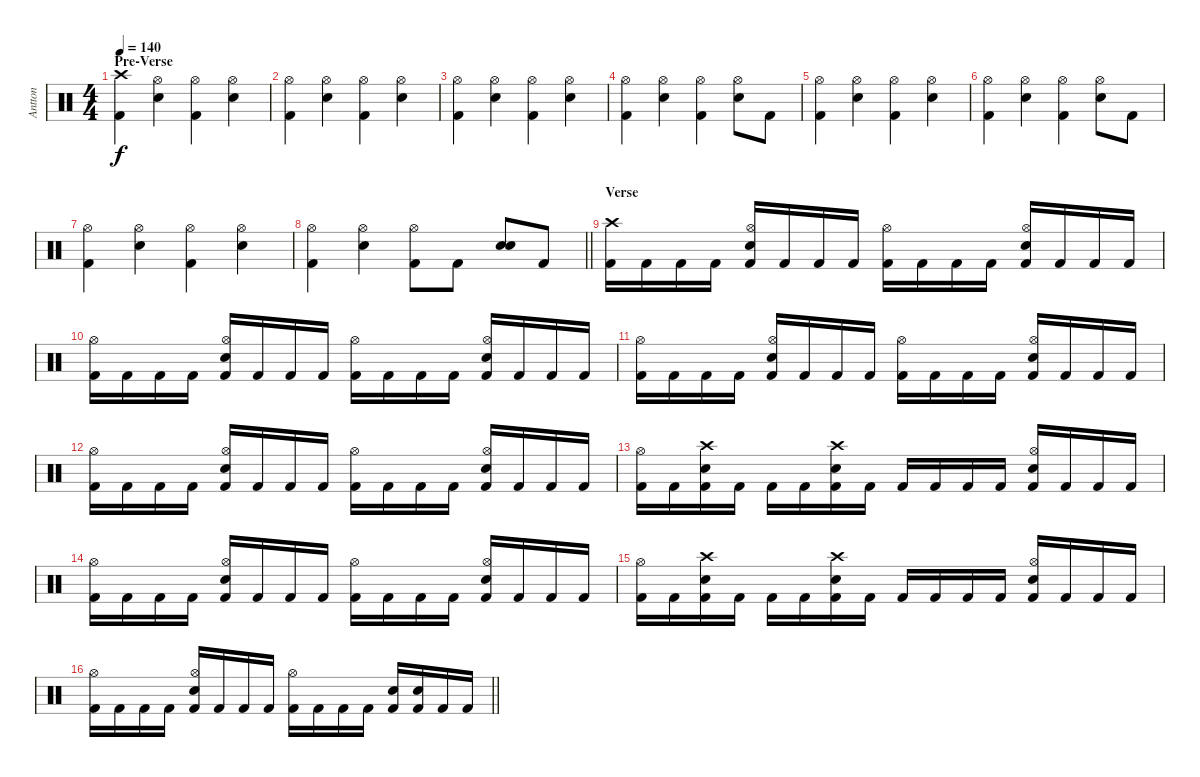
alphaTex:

\track ("Antton" "Antton") {instrument percussion}
\staff {score}
\articulation defaults
\ts (4 4)
\section ("" "Pre-Verse")
\tempo 140
\clef neutral
\ks c
("Crash high (hit)" "Kick (hit) 2").4{dy f} ("Hi-Hat (open)" "Snare (hit) 2").4 ("Hi-Hat (open)" "Kick (hit) 2").4 ("Hi-Hat (open)" "Snare (hit) 2").4 |
("Hi-Hat (open)" "Kick (hit) 2").4 ("Hi-Hat (open)" "Snare (hit) 2").4 ("Hi-Hat (open)" "Kick (hit) 2").4 ("Hi-Hat (open)" "Snare (hit) 2").4 |
("Hi-Hat (open)" "Kick (hit) 2").4 ("Hi-Hat (open)" "Snare (hit) 2").4 ("Hi-Hat (open)" "Kick (hit) 2").4 ("Hi-Hat (open)" "Snare (hit) 2").4 |
("Hi-Hat (open)" "Kick (hit) 2").4 ("Hi-Hat (open)" "Snare (hit) 2").4 ("Hi-Hat (open)" "Kick (hit) 2").4 ("Hi-Hat (open)" "Snare (hit) 2").8 "Kick (hit) 2".8 |
("Hi-Hat (open)" "Kick (hit) 2").4 ("Hi-Hat (open)" "Snare (hit) 2").4 ("Hi-Hat (open)" "Kick (hit) 2").4 ("Hi-Hat (open)" "Snare (hit) 2").4 |
("Hi-Hat (open)" "Kick (hit) 2").4 ("Hi-Hat (open)" "Snare (hit) 2").4 ("Hi-Hat (open)" "Kick (hit) 2").4 ("Hi-Hat (open)" "Snare (hit) 2").8 "Kick (hit) 2".8 |
("Hi-Hat (open)" "Kick (hit) 2").4 ("Hi-Hat (open)" "Snare (hit) 2").4 ("Hi-Hat (open)" "Kick (hit) 2").4 ("Hi-Hat (open)" "Snare (hit) 2").4 |
\barLineRight lightlight
("Hi-Hat (open)" "Kick (hit) 2").4 ("Hi-Hat (open)" "Snare (hit) 2").4 ("Hi-Hat (open)" "Kick (hit) 2").8 "Kick (hit) 2".8 ("Snare (hit) 2" "Snare (hit) 2").8 "Kick (hit) 2".8 |
\section ("" "Verse")
("Crash high (hit)" "Kick (hit) 2").16 "Kick (hit) 2".16 "Kick (hit) 2".16 "Kick (hit) 2".16 ("Hi-Hat (open)" "Snare (hit) 2" "Kick (hit) 2").16 "Kick (hit) 2".16 "Kick (hit) 2".16 "Kick (hit) 2".16 ("Hi-Hat (open)" "Kick (hit) 2").16 "Kick (hit) 2".16 "Kick (hit) 2".16 "Kick (hit) 2".16 ("Hi-Hat (open)" "Snare (hit) 2" "Kick (hit) 2").16 "Kick (hit) 2".16 "Kick (hit) 2".16 "Kick (hit) 2".16 |
("Hi-Hat (open)" "Kick (hit) 2").16 "Kick (hit) 2".16 "Kick (hit) 2".16 "Kick (hit) 2".16 ("Hi-Hat (open)" "Snare (hit) 2" "Kick (hit) 2").16 "Kick (hit) 2".16 "Kick (hit) 2".16 "Kick (hit) 2".16 ("Hi-Hat (open)" "Kick (hit) 2").16 "Kick (hit) 2".16 "Kick (hit) 2".16 "Kick (hit) 2".16 ("Hi-Hat (open)" "Snare (hit) 2" "Kick (hit) 2").16 "Kick (hit) 2".16 "Kick (hit) 2".16 "Kick (hit) 2".16 |
("Hi-Hat (open)" "Kick (hit) 2").16 "Kick (hit) 2".16 "Kick (hit) 2".16 "Kick (hit) 2".16 ("Hi-Hat (open)" "Snare (hit) 2" "Kick (hit) 2").16 "Kick (hit) 2".16 "Kick (hit) 2".16 "Kick (hit) 2".16 ("Hi-Hat (open)" "Kick (hit) 2").16 "Kick (hit) 2".16 "Kick (hit) 2".16 "Kick (hit) 2".16 ("Hi-Hat (open)" "Snare (hit) 2" "Kick (hit) 2").16 "Kick (hit) 2".16 "Kick (hit) 2".16 "Kick (hit) 2".16 |
("Hi-Hat (open)" "Kick (hit) 2").16 "Kick (hit) 2".16 "Kick (hit) 2".16 "Kick (hit) 2".16 ("Hi-Hat (open)" "Snare (hit) 2" "Kick (hit) 2").16 "Kick (hit) 2".16 "Kick (hit) 2".16 "Kick (hit) 2".16 ("Hi-Hat (open)" "Kick (hit) 2").16 "Kick (hit) 2".16 "Kick (hit) 2".16 "Kick (hit) 2".16 ("Hi-Hat (open)" "Snare (hit) 2" "Kick (hit) 2").16 "Kick (hit) 2".16 "Kick (hit) 2".16 "Kick (hit) 2".16 |
("Hi-Hat (open)" "Kick (hit) 2").16 "Kick (hit) 2".16 ("Crash high (hit)" "Snare (hit) 2" "Kick (hit) 2").16 "Kick (hit) 2".16 "Kick (hit) 2".16 "Kick (hit) 2".16 ("Crash high (hit)" "Snare (hit) 2" "Kick (hit) 2").16 "Kick (hit) 2".16 "Kick (hit) 2".16 "Kick (hit) 2".16 "Kick (hit) 2".16 "Kick (hit) 2".16 ("Hi-Hat (open)" "Snare (hit) 2" "Kick (hit) 2").16 "Kick (hit) 2".16 "Kick (hit) 2".16 "Kick (hit) 2".16 |
("Hi-Hat (open)" "Kick (hit) 2").16 "Kick (hit) 2".16 "Kick (hit) 2".16 "Kick (hit) 2".16 ("Hi-Hat (open)" "Snare (hit) 2" "Kick (hit) 2").16 "Kick (hit) 2".16 "Kick (hit) 2".16 "Kick (hit) 2".16 ("Hi-Hat (open)" "Kick (hit) 2").16 "Kick (hit) 2".16 "Kick (hit) 2".16 "Kick (hit) 2".16 ("Hi-Hat (open)" "Snare (hit) 2" "Kick (hit) 2").16 "Kick (hit) 2".16 "Kick (hit) 2".16 "Kick (hit) 2".16 |
("Hi-Hat (open)" "Kick (hit) 2").16 "Kick (hit) 2".16 ("Crash high (hit)" "Snare (hit) 2" "Kick (hit) 2").16 "Kick (hit) 2".16 "Kick (hit) 2".16 "Kick (hit) 2".16 ("Crash high (hit)" "Snare (hit) 2" "Kick (hit) 2").16 "Kick (hit) 2".16 "Kick (hit) 2".16 "Kick (hit) 2".16 "Kick (hit) 2".16 "Kick (hit) 2".16 ("Hi-Hat (open)" "Snare (hit) 2" "Kick (hit) 2").16 "Kick (hit) 2".16 "Kick (hit) 2".16 "Kick (hit) 2".16 |
\barLineRight lightlight
("Hi-Hat (open)" "Kick (hit) 2").16 "Kick (hit) 2".16 "Kick (hit) 2".16 "Kick (hit) 2".16 ("Hi-Hat (open)" "Snare (hit) 2" "Kick (hit) 2").16 "Kick (hit) 2".16 "Kick (hit) 2".16 "Kick (hit) 2".16 ("Hi-Hat (open)" "Kick (hit) 2").16 "Kick (hit) 2".16 "Kick (hit) 2".16 "Kick (hit) 2".16 ("Snare (hit) 2" "Kick (hit) 2").16 ("Snare (hit) 2" "Kick (hit) 2").16 "Kick (hit) 2".16 "Kick (hit) 2".16
